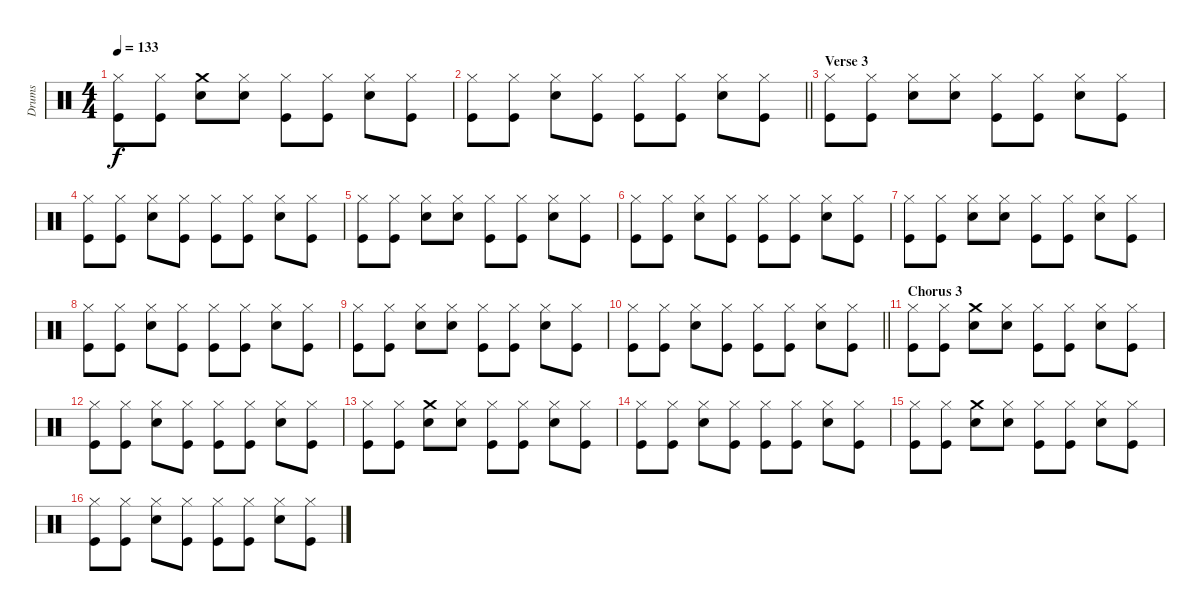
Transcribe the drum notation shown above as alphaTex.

\track ("Drums" "Drums") {instrument percussion}
\staff {score}
\articulation defaults
\ts (4 4)
\tempo 133
\clef neutral
\ks c
("Hi-Hat (closed)" "Kick (hit)").8{dy f} ("Hi-Hat (closed)" "Kick (hit)").8 ("Crash medium (hit)" "Snare (hit) 2").8 ("Hi-Hat (closed)" "Snare (hit) 2").8 ("Hi-Hat (closed)" "Kick (hit)").8 ("Hi-Hat (closed)" "Kick (hit)").8 ("Hi-Hat (closed)" "Snare (hit) 2").8 ("Hi-Hat (closed)" "Kick (hit)").8 |
\barLineRight lightlight
("Hi-Hat (closed)" "Kick (hit)").8 ("Hi-Hat (closed)" "Kick (hit)").8 ("Hi-Hat (closed)" "Snare (hit) 2").8 ("Hi-Hat (closed)" "Kick (hit)").8 ("Hi-Hat (closed)" "Kick (hit)").8 ("Hi-Hat (closed)" "Kick (hit)").8 ("Hi-Hat (closed)" "Snare (hit) 2").8 ("Hi-Hat (closed)" "Kick (hit)").8 |
\section ("" "Verse 3")
("Hi-Hat (closed)" "Kick (hit)").8 ("Hi-Hat (closed)" "Kick (hit)").8 ("Hi-Hat (closed)" "Snare (hit) 2").8 ("Hi-Hat (closed)" "Snare (hit) 2").8 ("Hi-Hat (closed)" "Kick (hit)").8 ("Hi-Hat (closed)" "Kick (hit)").8 ("Hi-Hat (closed)" "Snare (hit) 2").8 ("Hi-Hat (closed)" "Kick (hit)").8 |
("Hi-Hat (closed)" "Kick (hit)").8 ("Hi-Hat (closed)" "Kick (hit)").8 ("Hi-Hat (closed)" "Snare (hit) 2").8 ("Hi-Hat (closed)" "Kick (hit)").8 ("Hi-Hat (closed)" "Kick (hit)").8 ("Hi-Hat (closed)" "Kick (hit)").8 ("Hi-Hat (closed)" "Snare (hit) 2").8 ("Hi-Hat (closed)" "Kick (hit)").8 |
("Hi-Hat (closed)" "Kick (hit)").8 ("Hi-Hat (closed)" "Kick (hit)").8 ("Hi-Hat (closed)" "Snare (hit) 2").8 ("Hi-Hat (closed)" "Snare (hit) 2").8 ("Hi-Hat (closed)" "Kick (hit)").8 ("Hi-Hat (closed)" "Kick (hit)").8 ("Hi-Hat (closed)" "Snare (hit) 2").8 ("Hi-Hat (closed)" "Kick (hit)").8 |
("Hi-Hat (closed)" "Kick (hit)").8 ("Hi-Hat (closed)" "Kick (hit)").8 ("Hi-Hat (closed)" "Snare (hit) 2").8 ("Hi-Hat (closed)" "Kick (hit)").8 ("Hi-Hat (closed)" "Kick (hit)").8 ("Hi-Hat (closed)" "Kick (hit)").8 ("Hi-Hat (closed)" "Snare (hit) 2").8 ("Hi-Hat (closed)" "Kick (hit)").8 |
("Hi-Hat (closed)" "Kick (hit)").8 ("Hi-Hat (closed)" "Kick (hit)").8 ("Hi-Hat (closed)" "Snare (hit) 2").8 ("Hi-Hat (closed)" "Snare (hit) 2").8 ("Hi-Hat (closed)" "Kick (hit)").8 ("Hi-Hat (closed)" "Kick (hit)").8 ("Hi-Hat (closed)" "Snare (hit) 2").8 ("Hi-Hat (closed)" "Kick (hit)").8 |
("Hi-Hat (closed)" "Kick (hit)").8 ("Hi-Hat (closed)" "Kick (hit)").8 ("Hi-Hat (closed)" "Snare (hit) 2").8 ("Hi-Hat (closed)" "Kick (hit)").8 ("Hi-Hat (closed)" "Kick (hit)").8 ("Hi-Hat (closed)" "Kick (hit)").8 ("Hi-Hat (closed)" "Snare (hit) 2").8 ("Hi-Hat (closed)" "Kick (hit)").8 |
("Hi-Hat (closed)" "Kick (hit)").8 ("Hi-Hat (closed)" "Kick (hit)").8 ("Hi-Hat (closed)" "Snare (hit) 2").8 ("Hi-Hat (closed)" "Snare (hit) 2").8 ("Hi-Hat (closed)" "Kick (hit)").8 ("Hi-Hat (closed)" "Kick (hit)").8 ("Hi-Hat (closed)" "Snare (hit) 2").8 ("Hi-Hat (closed)" "Kick (hit)").8 |
\barLineRight lightlight
("Hi-Hat (closed)" "Kick (hit)").8 ("Hi-Hat (closed)" "Kick (hit)").8 ("Hi-Hat (closed)" "Snare (hit) 2").8 ("Hi-Hat (closed)" "Kick (hit)").8 ("Hi-Hat (closed)" "Kick (hit)").8 ("Hi-Hat (closed)" "Kick (hit)").8 ("Hi-Hat (closed)" "Snare (hit) 2").8 ("Hi-Hat (closed)" "Kick (hit)").8 |
\section ("" "Chorus 3")
("Hi-Hat (closed)" "Kick (hit)").8 ("Hi-Hat (closed)" "Kick (hit)").8 ("Crash medium (hit)" "Snare (hit) 2").8 ("Hi-Hat (closed)" "Snare (hit) 2").8 ("Hi-Hat (closed)" "Kick (hit)").8 ("Hi-Hat (closed)" "Kick (hit)").8 ("Hi-Hat (closed)" "Snare (hit) 2").8 ("Hi-Hat (closed)" "Kick (hit)").8 |
("Hi-Hat (closed)" "Kick (hit)").8 ("Hi-Hat (closed)" "Kick (hit)").8 ("Hi-Hat (closed)" "Snare (hit) 2").8 ("Hi-Hat (closed)" "Kick (hit)").8 ("Hi-Hat (closed)" "Kick (hit)").8 ("Hi-Hat (closed)" "Kick (hit)").8 ("Hi-Hat (closed)" "Snare (hit) 2").8 ("Hi-Hat (closed)" "Kick (hit)").8 |
("Hi-Hat (closed)" "Kick (hit)").8 ("Hi-Hat (closed)" "Kick (hit)").8 ("Crash medium (hit)" "Snare (hit) 2").8 ("Hi-Hat (closed)" "Snare (hit) 2").8 ("Hi-Hat (closed)" "Kick (hit)").8 ("Hi-Hat (closed)" "Kick (hit)").8 ("Hi-Hat (closed)" "Snare (hit) 2").8 ("Hi-Hat (closed)" "Kick (hit)").8 |
("Hi-Hat (closed)" "Kick (hit)").8 ("Hi-Hat (closed)" "Kick (hit)").8 ("Hi-Hat (closed)" "Snare (hit) 2").8 ("Hi-Hat (closed)" "Kick (hit)").8 ("Hi-Hat (closed)" "Kick (hit)").8 ("Hi-Hat (closed)" "Kick (hit)").8 ("Hi-Hat (closed)" "Snare (hit) 2").8 ("Hi-Hat (closed)" "Kick (hit)").8 |
("Hi-Hat (closed)" "Kick (hit)").8 ("Hi-Hat (closed)" "Kick (hit)").8 ("Crash medium (hit)" "Snare (hit) 2").8 ("Hi-Hat (closed)" "Snare (hit) 2").8 ("Hi-Hat (closed)" "Kick (hit)").8 ("Hi-Hat (closed)" "Kick (hit)").8 ("Hi-Hat (closed)" "Snare (hit) 2").8 ("Hi-Hat (closed)" "Kick (hit)").8 |
("Hi-Hat (closed)" "Kick (hit)").8 ("Hi-Hat (closed)" "Kick (hit)").8 ("Hi-Hat (closed)" "Snare (hit) 2").8 ("Hi-Hat (closed)" "Kick (hit)").8 ("Hi-Hat (closed)" "Kick (hit)").8 ("Hi-Hat (closed)" "Kick (hit)").8 ("Hi-Hat (closed)" "Snare (hit) 2").8 ("Hi-Hat (closed)" "Kick (hit)").8
